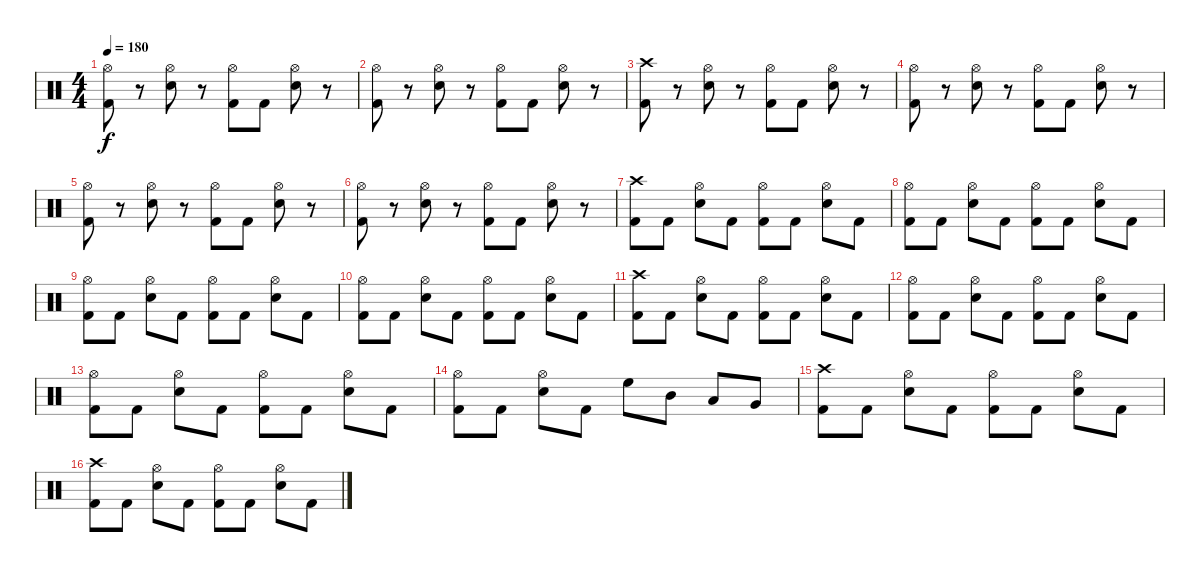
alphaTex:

\track "" {instrument percussion}
\staff {score}
\articulation defaults
\ts (4 4)
\tempo 180
\clef neutral
\ks c
("Hi-Hat (open)" "Kick (hit) 2").8{dy f} r.8 ("Hi-Hat (open)" "Electric Snare (hit)").8 r.8 ("Hi-Hat (open)" "Kick (hit) 2").8 "Kick (hit) 2".8 ("Hi-Hat (open)" "Electric Snare (hit)").8 r.8 |
("Hi-Hat (open)" "Kick (hit) 2").8 r.8 ("Hi-Hat (open)" "Electric Snare (hit)").8 r.8 ("Hi-Hat (open)" "Kick (hit) 2").8 "Kick (hit) 2".8 ("Hi-Hat (open)" "Electric Snare (hit)").8 r.8 |
("Crash high (hit)" "Kick (hit) 2").8 r.8 ("Hi-Hat (open)" "Electric Snare (hit)").8 r.8 ("Hi-Hat (open)" "Kick (hit) 2").8 "Kick (hit) 2".8 ("Hi-Hat (open)" "Electric Snare (hit)").8 r.8 |
("Hi-Hat (open)" "Kick (hit) 2").8 r.8 ("Hi-Hat (open)" "Electric Snare (hit)").8 r.8 ("Hi-Hat (open)" "Kick (hit) 2").8 "Kick (hit) 2".8 ("Hi-Hat (open)" "Electric Snare (hit)").8 r.8 |
("Hi-Hat (open)" "Kick (hit) 2").8 r.8 ("Hi-Hat (open)" "Electric Snare (hit)").8 r.8 ("Hi-Hat (open)" "Kick (hit) 2").8 "Kick (hit) 2".8 ("Hi-Hat (open)" "Electric Snare (hit)").8 r.8 |
("Hi-Hat (open)" "Kick (hit) 2").8 r.8 ("Hi-Hat (open)" "Electric Snare (hit)").8 r.8 ("Hi-Hat (open)" "Kick (hit) 2").8 "Kick (hit) 2".8 ("Hi-Hat (open)" "Electric Snare (hit)").8 r.8 |
("Crash high (hit)" "Kick (hit) 2").8 "Kick (hit) 2".8 ("Hi-Hat (open)" "Electric Snare (hit)").8 "Kick (hit) 2".8 ("Hi-Hat (open)" "Kick (hit) 2").8 "Kick (hit) 2".8 ("Hi-Hat (open)" "Electric Snare (hit)").8 "Kick (hit) 2".8 |
("Hi-Hat (open)" "Kick (hit) 2").8 "Kick (hit) 2".8 ("Hi-Hat (open)" "Electric Snare (hit)").8 "Kick (hit) 2".8 ("Hi-Hat (open)" "Kick (hit) 2").8 "Kick (hit) 2".8 ("Hi-Hat (open)" "Electric Snare (hit)").8 "Kick (hit) 2".8 |
("Hi-Hat (open)" "Kick (hit) 2").8 "Kick (hit) 2".8 ("Hi-Hat (open)" "Electric Snare (hit)").8 "Kick (hit) 2".8 ("Hi-Hat (open)" "Kick (hit) 2").8 "Kick (hit) 2".8 ("Hi-Hat (open)" "Electric Snare (hit)").8 "Kick (hit) 2".8 |
("Hi-Hat (open)" "Kick (hit) 2").8 "Kick (hit) 2".8 ("Hi-Hat (open)" "Electric Snare (hit)").8 "Kick (hit) 2".8 ("Hi-Hat (open)" "Kick (hit) 2").8 "Kick (hit) 2".8 ("Hi-Hat (open)" "Electric Snare (hit)").8 "Kick (hit) 2".8 |
("Crash high (hit)" "Kick (hit) 2").8 "Kick (hit) 2".8 ("Hi-Hat (open)" "Electric Snare (hit)").8 "Kick (hit) 2".8 ("Hi-Hat (open)" "Kick (hit) 2").8 "Kick (hit) 2".8 ("Hi-Hat (open)" "Electric Snare (hit)").8 "Kick (hit) 2".8 |
("Hi-Hat (open)" "Kick (hit) 2").8 "Kick (hit) 2".8 ("Hi-Hat (open)" "Electric Snare (hit)").8 "Kick (hit) 2".8 ("Hi-Hat (open)" "Kick (hit) 2").8 "Kick (hit) 2".8 ("Hi-Hat (open)" "Electric Snare (hit)").8 "Kick (hit) 2".8 |
("Hi-Hat (open)" "Kick (hit) 2").8 "Kick (hit) 2".8 ("Hi-Hat (open)" "Electric Snare (hit)").8 "Kick (hit) 2".8 ("Hi-Hat (open)" "Kick (hit) 2").8 "Kick (hit) 2".8 ("Hi-Hat (open)" "Electric Snare (hit)").8 "Kick (hit) 2".8 |
("Hi-Hat (open)" "Kick (hit) 2").8 "Kick (hit) 2".8 ("Hi-Hat (open)" "Electric Snare (hit)").8 "Kick (hit) 2".8 "High Floor Tom (hit)".8 "Mid Tom (hit)".8 "Low Tom (hit)".8 "Very Low Tom (hit)".8 |
("Crash high (hit)" "Kick (hit) 2").8 "Kick (hit) 2".8 ("Hi-Hat (open)" "Electric Snare (hit)").8 "Kick (hit) 2".8 ("Hi-Hat (open)" "Kick (hit) 2").8 "Kick (hit) 2".8 ("Hi-Hat (open)" "Electric Snare (hit)").8 "Kick (hit) 2".8 |
("Crash high (hit)" "Kick (hit) 2").8 "Kick (hit) 2".8 ("Hi-Hat (open)" "Electric Snare (hit)").8 "Kick (hit) 2".8 ("Hi-Hat (open)" "Kick (hit) 2").8 "Kick (hit) 2".8 ("Hi-Hat (open)" "Electric Snare (hit)").8 "Kick (hit) 2".8
